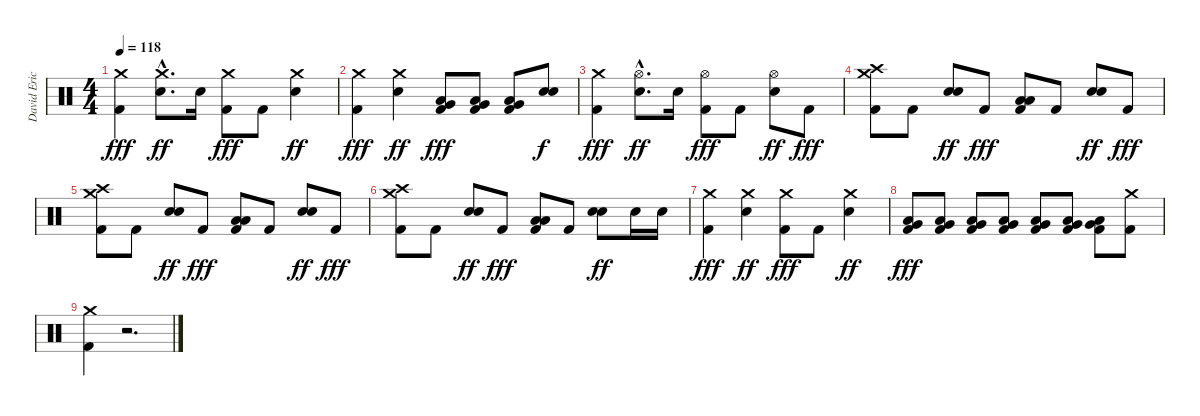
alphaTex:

\track ("David Eric Grohl" "David Eric") {instrument percussion}
\staff {score}
\articulation defaults
\ts (4 4)
\tempo 118
\clef neutral
\ks c
("Crash medium (hit)" "Kick (hit) 2").4{dy fff} ("Crash medium (hit)"{hac} "Electric Snare (hit)"{hac}).8{d dy ff} "Electric Snare (hit)".16 ("Crash medium (hit)" "Kick (hit) 2").8{dy fff} "Kick (hit) 2".8 ("Crash medium (hit)" "Electric Snare (hit)").4{dy ff} |
("Crash medium (hit)" "Kick (hit) 2").4{dy fff} ("Crash medium (hit)" "Electric Snare (hit)").4{dy ff} ("Low Tom (hit)" "Very Low Tom (hit)" "Kick (hit) 2").8{dy fff} ("Low Tom (hit)" "Very Low Tom (hit)" "Kick (hit) 2").8 ("Low Tom (hit)" "Very Low Tom (hit)" "Kick (hit) 2").8 ("Electric Snare (hit)" "Electric Snare (hit)").8{dy f} |
("Crash medium (hit)" "Kick (hit) 2").4{dy fff} ("Hi-Hat (open)"{hac} "Electric Snare (hit)"{hac}).8{d dy ff} "Electric Snare (hit)".16 ("Hi-Hat (open)" "Kick (hit) 2").8{dy fff} "Kick (hit) 2".8 ("Hi-Hat (open)" "Electric Snare (hit)").8{dy ff} "Kick (hit) 2".8{dy fff} |
("Crash high (hit)" "Crash medium (hit)" "Kick (hit) 2").8 "Kick (hit) 2".8 ("Electric Snare (hit)" "Electric Snare (hit)").8{dy ff} "Kick (hit) 2".8{dy fff} ("Low Tom (hit)" "Low Tom (hit)" "Kick (hit) 2").8 "Kick (hit) 2".8 ("Electric Snare (hit)" "Electric Snare (hit)").8{dy ff} "Kick (hit) 2".8{dy fff} |
("Crash high (hit)" "Crash medium (hit)" "Kick (hit) 2").8 "Kick (hit) 2".8 ("Electric Snare (hit)" "Electric Snare (hit)").8{dy ff} "Kick (hit) 2".8{dy fff} ("Low Tom (hit)" "Low Tom (hit)" "Kick (hit) 2").8 "Kick (hit) 2".8 ("Electric Snare (hit)" "Electric Snare (hit)").8{dy ff} "Kick (hit) 2".8{dy fff} |
("Crash high (hit)" "Crash medium (hit)" "Kick (hit) 2").8 "Kick (hit) 2".8 ("Electric Snare (hit)" "Electric Snare (hit)").8{dy ff} "Kick (hit) 2".8{dy fff} ("Low Tom (hit)" "Low Tom (hit)" "Kick (hit) 2").8 "Kick (hit) 2".8 ("Electric Snare (hit)" "Electric Snare (hit)").8{dy ff} "Electric Snare (hit)".16 "Electric Snare (hit)".16 |
("Crash medium (hit)" "Kick (hit) 2").4{dy fff} ("Crash medium (hit)" "Electric Snare (hit)").4{dy ff} ("Crash medium (hit)" "Kick (hit) 2").8{dy fff} "Kick (hit) 2".8 ("Crash medium (hit)" "Electric Snare (hit)").4{dy ff} |
("Low Tom (hit)" "Very Low Tom (hit)" "Kick (hit) 2").8{dy fff} ("Low Tom (hit)" "Very Low Tom (hit)" "Kick (hit) 2").8 ("Low Tom (hit)" "Very Low Tom (hit)" "Kick (hit) 2").8 ("Low Tom (hit)" "Very Low Tom (hit)" "Kick (hit) 2").8 ("Low Tom (hit)" "Very Low Tom (hit)" "Kick (hit) 2").8 ("Low Tom (hit)" "Very Low Tom (hit)" "Kick (hit) 2").8 ("Low Tom (hit)" "Very Low Tom (hit)" "Kick (hit) 2").8 ("Crash medium (hit)" "Kick (hit) 2").8 |
("Crash medium (hit)" "Kick (hit) 2").4 r.2{d}
